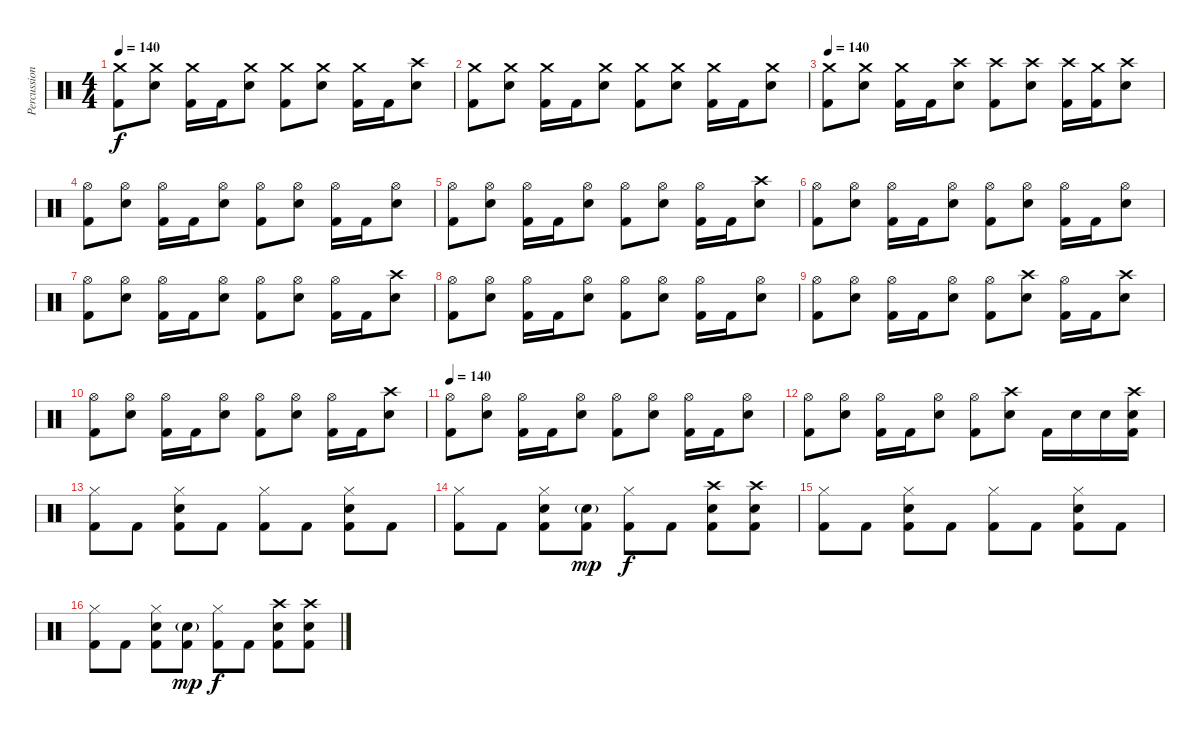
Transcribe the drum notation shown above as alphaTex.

\track ("Percussions" "Percussion") {instrument percussion}
\staff {score}
\articulation defaults
\ts (4 4)
\tempo 140
\clef neutral
\ks c
("Crash medium (hit)" "Kick (hit) 2").8{dy f} ("Crash medium (hit)" "Snare (hit) 2").8 ("Crash medium (hit)" "Kick (hit) 2").16 "Kick (hit) 2".16 ("Crash medium (hit)" "Snare (hit) 2").8 ("Crash medium (hit)" "Kick (hit) 2").8 ("Crash medium (hit)" "Snare (hit) 2").8 ("Crash medium (hit)" "Kick (hit) 2").16 "Kick (hit) 2".16 ("Crash high (hit)" "Snare (hit) 2").8 |
("Crash medium (hit)" "Kick (hit) 2").8 ("Crash medium (hit)" "Snare (hit) 2").8 ("Crash medium (hit)" "Kick (hit) 2").16 "Kick (hit) 2".16 ("Crash medium (hit)" "Snare (hit) 2").8 ("Crash medium (hit)" "Kick (hit) 2").8 ("Crash medium (hit)" "Snare (hit) 2").8 ("Crash medium (hit)" "Kick (hit) 2").16 "Kick (hit) 2".16 ("Crash medium (hit)" "Snare (hit) 2").8 |
\tempo 140
("Crash medium (hit)" "Kick (hit) 2").8 ("Crash medium (hit)" "Snare (hit) 2").8 ("Crash medium (hit)" "Kick (hit) 2").16 "Kick (hit) 2".16 ("Crash high (hit)" "Snare (hit) 2").8 ("Crash high (hit)" "Kick (hit) 2").8 ("Crash high (hit)" "Snare (hit) 2").8 ("Crash high (hit)" "Kick (hit) 2").16 ("Crash medium (hit)" "Kick (hit) 2").16 ("Crash high (hit)" "Snare (hit) 2").8 |
("Hi-Hat (open)" "Kick (hit) 2").8 ("Hi-Hat (open)" "Snare (hit) 2").8 ("Hi-Hat (open)" "Kick (hit) 2").16 "Kick (hit) 2".16 ("Hi-Hat (open)" "Snare (hit) 2").8 ("Hi-Hat (open)" "Kick (hit) 2").8 ("Hi-Hat (open)" "Snare (hit) 2").8 ("Hi-Hat (open)" "Kick (hit) 2").16 "Kick (hit) 2".16 ("Hi-Hat (open)" "Snare (hit) 2").8 |
("Hi-Hat (open)" "Kick (hit) 2").8 ("Hi-Hat (open)" "Snare (hit) 2").8 ("Hi-Hat (open)" "Kick (hit) 2").16 "Kick (hit) 2".16 ("Hi-Hat (open)" "Snare (hit) 2").8 ("Hi-Hat (open)" "Kick (hit) 2").8 ("Hi-Hat (open)" "Snare (hit) 2").8 ("Hi-Hat (open)" "Kick (hit) 2").16 "Kick (hit) 2".16 ("Crash high (hit)" "Snare (hit) 2").8 |
("Hi-Hat (open)" "Kick (hit) 2").8 ("Hi-Hat (open)" "Snare (hit) 2").8 ("Hi-Hat (open)" "Kick (hit) 2").16 "Kick (hit) 2".16 ("Hi-Hat (open)" "Snare (hit) 2").8 ("Hi-Hat (open)" "Kick (hit) 2").8 ("Hi-Hat (open)" "Snare (hit) 2").8 ("Hi-Hat (open)" "Kick (hit) 2").16 "Kick (hit) 2".16 ("Hi-Hat (open)" "Snare (hit) 2").8 |
("Hi-Hat (open)" "Kick (hit) 2").8 ("Hi-Hat (open)" "Snare (hit) 2").8 ("Hi-Hat (open)" "Kick (hit) 2").16 "Kick (hit) 2".16 ("Hi-Hat (open)" "Snare (hit) 2").8 ("Hi-Hat (open)" "Kick (hit) 2").8 ("Hi-Hat (open)" "Snare (hit) 2").8 ("Hi-Hat (open)" "Kick (hit) 2").16 "Kick (hit) 2".16 ("Crash high (hit)" "Snare (hit) 2").8 |
("Hi-Hat (open)" "Kick (hit) 2").8 ("Hi-Hat (open)" "Snare (hit) 2").8 ("Hi-Hat (open)" "Kick (hit) 2").16 "Kick (hit) 2".16 ("Hi-Hat (open)" "Snare (hit) 2").8 ("Hi-Hat (open)" "Kick (hit) 2").8 ("Hi-Hat (open)" "Snare (hit) 2").8 ("Hi-Hat (open)" "Kick (hit) 2").16 "Kick (hit) 2".16 ("Hi-Hat (open)" "Snare (hit) 2").8 |
("Hi-Hat (open)" "Kick (hit) 2").8 ("Hi-Hat (open)" "Snare (hit) 2").8 ("Hi-Hat (open)" "Kick (hit) 2").16 "Kick (hit) 2".16 ("Hi-Hat (open)" "Snare (hit) 2").8 ("Hi-Hat (open)" "Kick (hit) 2").8 ("Crash high (hit)" "Snare (hit) 2").8 ("Hi-Hat (open)" "Kick (hit) 2").16 "Kick (hit) 2".16 ("Crash high (hit)" "Snare (hit) 2").8 |
("Hi-Hat (open)" "Kick (hit) 2").8 ("Hi-Hat (open)" "Snare (hit) 2").8 ("Hi-Hat (open)" "Kick (hit) 2").16 "Kick (hit) 2".16 ("Hi-Hat (open)" "Snare (hit) 2").8 ("Hi-Hat (open)" "Kick (hit) 2").8 ("Hi-Hat (open)" "Snare (hit) 2").8 ("Hi-Hat (open)" "Kick (hit) 2").16 "Kick (hit) 2".16 ("Crash high (hit)" "Snare (hit) 2").8 |
\tempo 140
("Hi-Hat (open)" "Kick (hit) 2").8 ("Hi-Hat (open)" "Snare (hit) 2").8 ("Hi-Hat (open)" "Kick (hit) 2").16 "Kick (hit) 2".16 ("Hi-Hat (open)" "Snare (hit) 2").8 ("Hi-Hat (open)" "Kick (hit) 2").8 ("Hi-Hat (open)" "Snare (hit) 2").8 ("Hi-Hat (open)" "Kick (hit) 2").16 "Kick (hit) 2".16 ("Hi-Hat (open)" "Snare (hit) 2").8 |
("Hi-Hat (open)" "Kick (hit) 2").8 ("Hi-Hat (open)" "Snare (hit) 2").8 ("Hi-Hat (open)" "Kick (hit) 2").16 "Kick (hit) 2".16 ("Hi-Hat (open)" "Snare (hit) 2").8 ("Hi-Hat (open)" "Kick (hit) 2").8 ("Crash high (hit)" "Snare (hit) 2").8 "Kick (hit) 2".16 "Snare (hit) 2".16 "Snare (hit) 2".16 ("Crash high (hit)" "Snare (hit) 2" "Kick (hit) 2").16 |
("Hi-Hat (closed)" "Kick (hit) 2").8 "Kick (hit) 2".8 ("Hi-Hat (closed)" "Snare (hit) 2" "Kick (hit) 2").8 "Kick (hit) 2".8 ("Hi-Hat (closed)" "Kick (hit) 2").8 "Kick (hit) 2".8 ("Hi-Hat (closed)" "Snare (hit) 2" "Kick (hit) 2").8 "Kick (hit) 2".8 |
("Hi-Hat (closed)" "Kick (hit) 2").8 "Kick (hit) 2".8 ("Hi-Hat (closed)" "Snare (hit) 2" "Kick (hit) 2").8 ("Snare (hit) 2"{g} "Kick (hit) 2").8{dy mp} ("Hi-Hat (closed)" "Kick (hit) 2").8{dy f} "Kick (hit) 2".8 ("Crash high (hit)" "Snare (hit) 2" "Kick (hit) 2").8 ("Crash high (hit)" "Snare (hit) 2" "Kick (hit) 2").8 |
("Hi-Hat (closed)" "Kick (hit) 2").8 "Kick (hit) 2".8 ("Hi-Hat (closed)" "Snare (hit) 2" "Kick (hit) 2").8 "Kick (hit) 2".8 ("Hi-Hat (closed)" "Kick (hit) 2").8 "Kick (hit) 2".8 ("Hi-Hat (closed)" "Snare (hit) 2" "Kick (hit) 2").8 "Kick (hit) 2".8 |
("Hi-Hat (closed)" "Kick (hit) 2").8 "Kick (hit) 2".8 ("Hi-Hat (closed)" "Snare (hit) 2" "Kick (hit) 2").8 ("Snare (hit) 2"{g} "Kick (hit) 2").8{dy mp} ("Hi-Hat (closed)" "Kick (hit) 2").8{dy f} "Kick (hit) 2".8 ("Crash high (hit)" "Snare (hit) 2" "Kick (hit) 2").8 ("Crash high (hit)" "Snare (hit) 2" "Kick (hit) 2").8
